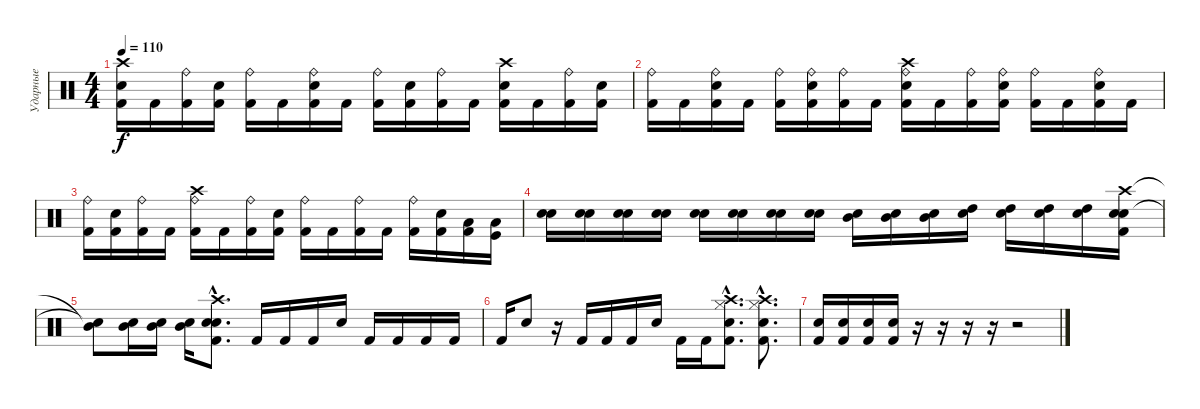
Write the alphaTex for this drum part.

\track ("Ударные" "Ударные") {instrument percussion}
\staff {score}
\articulation defaults
\ts (4 4)
\tempo 110
\clef neutral
\ks c
("Crash high (hit)" "Electric Snare (hit)" "Kick (hit) 2").16{dy f} "Kick (hit) 2".16 ("Ride (bell)" "Kick (hit) 2").16 ("Electric Snare (hit)" "Kick (hit) 2").16 ("Ride (bell)" "Kick (hit) 2").16 "Kick (hit) 2".16 ("Ride (bell)" "Electric Snare (hit)" "Kick (hit) 2").16 "Kick (hit) 2".16 ("Ride (bell)" "Kick (hit) 2").16 ("Electric Snare (hit)" "Kick (hit) 2").16 ("Ride (bell)" "Kick (hit) 2").16 "Kick (hit) 2".16 ("Crash high (hit)" "Electric Snare (hit)" "Kick (hit) 2").16 "Kick (hit) 2".16 ("Ride (bell)" "Kick (hit) 2").16 ("Electric Snare (hit)" "Kick (hit) 2").16 |
("Ride (bell)" "Kick (hit) 2").16 "Kick (hit) 2".16 ("Ride (bell)" "Electric Snare (hit)" "Kick (hit) 2").16 "Kick (hit) 2".16 ("Ride (bell)" "Kick (hit) 2").16 ("Ride (bell)" "Electric Snare (hit)" "Kick (hit) 2").16 ("Ride (bell)" "Kick (hit) 2").16 "Kick (hit) 2".16 ("Crash high (hit)" "Ride (bell)" "Electric Snare (hit)" "Kick (hit) 2").16 "Kick (hit) 2".16 ("Ride (bell)" "Kick (hit) 2").16 ("Ride (bell)" "Electric Snare (hit)" "Kick (hit) 2").16 ("Ride (bell)" "Kick (hit) 2").16 "Kick (hit) 2".16 ("Ride (bell)" "Electric Snare (hit)" "Kick (hit) 2").16 "Kick (hit) 2".16 |
("Ride (bell)" "Kick (hit) 2").16 ("Electric Snare (hit)" "Kick (hit) 2").16 ("Ride (bell)" "Kick (hit) 2").16 "Kick (hit) 2".16 ("Crash high (hit)" "Ride (bell)" "Kick (hit) 2").16 "Kick (hit) 2".16 ("Ride (bell)" "Kick (hit) 2").16 ("Electric Snare (hit)" "Kick (hit) 2").16 ("Ride (bell)" "Kick (hit) 2").16 "Kick (hit) 2".16 ("Ride (bell)" "Kick (hit) 2").16 "Kick (hit) 2".16 ("Ride (bell)" "Kick (hit) 2").16 ("Electric Snare (hit)" "Kick (hit) 2").16 ("Low Tom (hit)" "Kick (hit) 2").16 ("Low Tom (hit)" "Kick (hit)").16 |
("Electric Snare (hit)" "Electric Snare (hit)").16 ("Electric Snare (hit)" "Electric Snare (hit)").16 ("Electric Snare (hit)" "Electric Snare (hit)").16 ("Electric Snare (hit)" "Electric Snare (hit)").16 ("Electric Snare (hit)" "Electric Snare (hit)").16 ("Electric Snare (hit)" "Electric Snare (hit)").16 ("Electric Snare (hit)" "Electric Snare (hit)").16 ("Electric Snare (hit)" "Electric Snare (hit)").16 ("Mid Tom (hit)" "Electric Snare (hit)").16 ("Mid Tom (hit)" "Electric Snare (hit)").16 ("Mid Tom (hit)" "Electric Snare (hit)").16 ("High Tom (hit)" "Electric Snare (hit)").16 ("High Tom (hit)" "Electric Snare (hit)").16 ("High Tom (hit)" "Electric Snare (hit)").16 ("High Tom (hit)" "Electric Snare (hit)").16 ("Crash high (hit)" "Electric Snare (hit)" "Electric Snare (hit)" "Kick (hit) 2").16 |
("Mid Tom (hit)"{t} "Electric Snare (hit)"{t}).8 ("Mid Tom (hit)" "Electric Snare (hit)").16 ("Mid Tom (hit)" "Electric Snare (hit)").16 ("Mid Tom (hit)" "Electric Snare (hit)").16 ("Crash high (hit)"{hac} "Electric Snare (hit)"{hac} "Electric Snare (hit)"{hac} "Kick (hit) 2"{hac}).8{d} "Kick (hit) 2".16 "Kick (hit) 2".16 "Kick (hit) 2".16 "Electric Snare (hit)".16 "Kick (hit) 2".16 "Kick (hit) 2".16 "Kick (hit) 2".16 "Kick (hit) 2".16 |
"Kick (hit) 2".16 "Electric Snare (hit)".8 r.16 "Kick (hit) 2".16 "Kick (hit) 2".16 "Kick (hit) 2".16 "Electric Snare (hit)".16 "Kick (hit) 2".16 "Kick (hit) 2".16 ("Crash high (hit)"{hac} "Hi-Hat (closed)"{hac} "Electric Snare (hit)"{hac} "Kick (hit) 2"{hac}).8{d} ("Crash high (hit)"{hac} "Hi-Hat (closed)"{hac} "Electric Snare (hit)"{hac} "Kick (hit) 2"{hac}).8{d} |
("Electric Snare (hit)" "Kick (hit) 2").16 ("Electric Snare (hit)" "Kick (hit) 2").16 ("Electric Snare (hit)" "Kick (hit) 2").16 ("Electric Snare (hit)" "Kick (hit) 2").16 r.16 r.16 r.16 r.16 r.2
